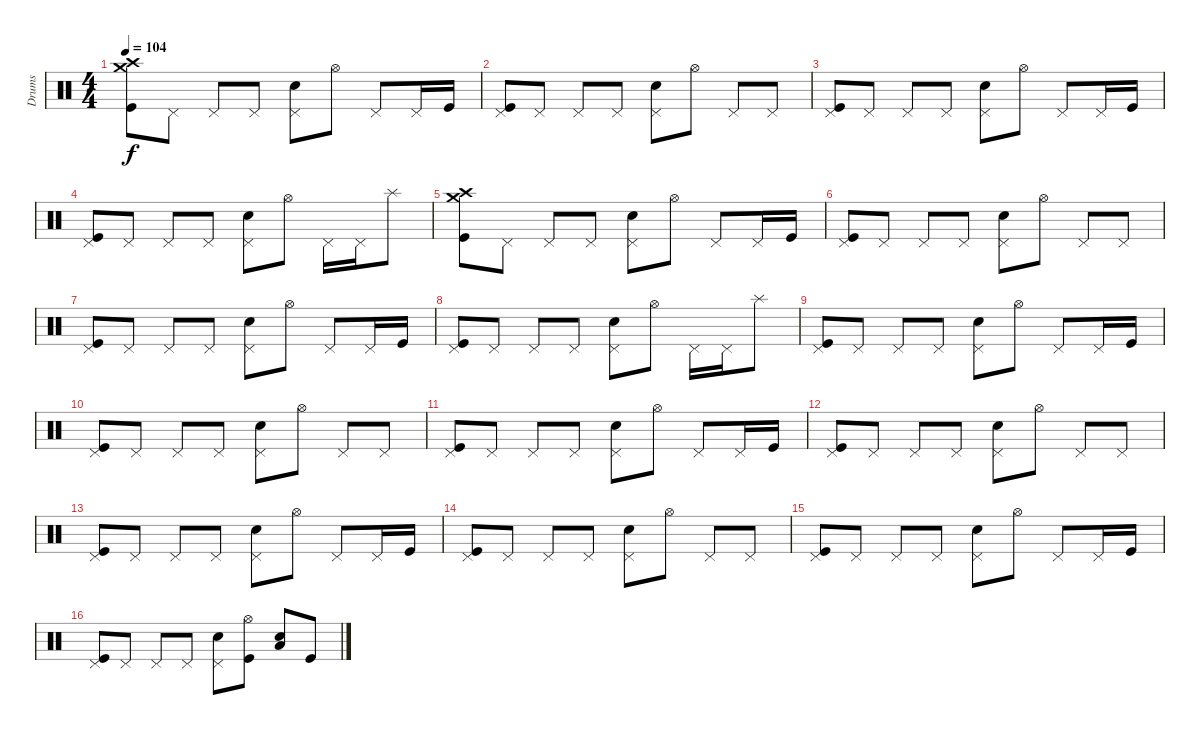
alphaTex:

\track ("Drums" "Drums") {instrument percussion}
\staff {score}
\articulation defaults
\ts (4 4)
\tempo 104
\clef neutral
\ks c
("Crash high (hit)" "Crash medium (hit)" "Kick (hit)").8{dy f} "Pedal Hi-Hat (hit)".8 "Pedal Hi-Hat (hit)".8 "Pedal Hi-Hat (hit)".8 ("Pedal Hi-Hat (hit)" "Electric Snare (hit)").8 "Hi-Hat (open)".8 "Pedal Hi-Hat (hit)".8 "Pedal Hi-Hat (hit)".16 "Kick (hit)".16 |
("Pedal Hi-Hat (hit)" "Kick (hit)").8 "Pedal Hi-Hat (hit)".8 "Pedal Hi-Hat (hit)".8 "Pedal Hi-Hat (hit)".8 ("Pedal Hi-Hat (hit)" "Snare (hit) 2").8 "Hi-Hat (open)".8 "Pedal Hi-Hat (hit)".8 "Pedal Hi-Hat (hit)".8 |
("Pedal Hi-Hat (hit)" "Kick (hit)").8 "Pedal Hi-Hat (hit)".8 "Pedal Hi-Hat (hit)".8 "Pedal Hi-Hat (hit)".8 ("Pedal Hi-Hat (hit)" "Snare (hit) 2").8 "Hi-Hat (open)".8 "Pedal Hi-Hat (hit)".8 "Pedal Hi-Hat (hit)".16 "Kick (hit)".16 |
("Pedal Hi-Hat (hit)" "Kick (hit)").8 "Pedal Hi-Hat (hit)".8 "Pedal Hi-Hat (hit)".8 "Pedal Hi-Hat (hit)".8 ("Pedal Hi-Hat (hit)" "Snare (hit) 2").8 "Hi-Hat (open)".8 "Pedal Hi-Hat (hit)".16 "Pedal Hi-Hat (hit)".16 "Splash (hit)".8 |
("Crash high (hit)" "Crash medium (hit)" "Kick (hit)").8 "Pedal Hi-Hat (hit)".8 "Pedal Hi-Hat (hit)".8 "Pedal Hi-Hat (hit)".8 ("Pedal Hi-Hat (hit)" "Electric Snare (hit)").8 "Hi-Hat (open)".8 "Pedal Hi-Hat (hit)".8 "Pedal Hi-Hat (hit)".16 "Kick (hit)".16 |
("Pedal Hi-Hat (hit)" "Kick (hit)").8 "Pedal Hi-Hat (hit)".8 "Pedal Hi-Hat (hit)".8 "Pedal Hi-Hat (hit)".8 ("Pedal Hi-Hat (hit)" "Snare (hit) 2").8 "Hi-Hat (open)".8 "Pedal Hi-Hat (hit)".8 "Pedal Hi-Hat (hit)".8 |
("Pedal Hi-Hat (hit)" "Kick (hit)").8 "Pedal Hi-Hat (hit)".8 "Pedal Hi-Hat (hit)".8 "Pedal Hi-Hat (hit)".8 ("Pedal Hi-Hat (hit)" "Snare (hit) 2").8 "Hi-Hat (open)".8 "Pedal Hi-Hat (hit)".8 "Pedal Hi-Hat (hit)".16 "Kick (hit)".16 |
("Pedal Hi-Hat (hit)" "Kick (hit)").8 "Pedal Hi-Hat (hit)".8 "Pedal Hi-Hat (hit)".8 "Pedal Hi-Hat (hit)".8 ("Pedal Hi-Hat (hit)" "Snare (hit) 2").8 "Hi-Hat (open)".8 "Pedal Hi-Hat (hit)".16 "Pedal Hi-Hat (hit)".16 "Splash (hit)".8 |
("Pedal Hi-Hat (hit)" "Kick (hit)").8 "Pedal Hi-Hat (hit)".8 "Pedal Hi-Hat (hit)".8 "Pedal Hi-Hat (hit)".8 ("Pedal Hi-Hat (hit)" "Electric Snare (hit)").8 "Hi-Hat (open)".8 "Pedal Hi-Hat (hit)".8 "Pedal Hi-Hat (hit)".16 "Kick (hit)".16 |
("Pedal Hi-Hat (hit)" "Kick (hit)").8 "Pedal Hi-Hat (hit)".8 "Pedal Hi-Hat (hit)".8 "Pedal Hi-Hat (hit)".8 ("Pedal Hi-Hat (hit)" "Snare (hit) 2").8 "Hi-Hat (open)".8 "Pedal Hi-Hat (hit)".8 "Pedal Hi-Hat (hit)".8 |
("Pedal Hi-Hat (hit)" "Kick (hit)").8 "Pedal Hi-Hat (hit)".8 "Pedal Hi-Hat (hit)".8 "Pedal Hi-Hat (hit)".8 ("Pedal Hi-Hat (hit)" "Snare (hit) 2").8 "Hi-Hat (open)".8 "Pedal Hi-Hat (hit)".8 "Pedal Hi-Hat (hit)".16 "Kick (hit)".16 |
("Pedal Hi-Hat (hit)" "Kick (hit)").8 "Pedal Hi-Hat (hit)".8 "Pedal Hi-Hat (hit)".8 "Pedal Hi-Hat (hit)".8 ("Pedal Hi-Hat (hit)" "Snare (hit) 2").8 "Hi-Hat (open)".8 "Pedal Hi-Hat (hit)".8 "Pedal Hi-Hat (hit)".8 |
("Pedal Hi-Hat (hit)" "Kick (hit)").8 "Pedal Hi-Hat (hit)".8 "Pedal Hi-Hat (hit)".8 "Pedal Hi-Hat (hit)".8 ("Pedal Hi-Hat (hit)" "Electric Snare (hit)").8 "Hi-Hat (open)".8 "Pedal Hi-Hat (hit)".8 "Pedal Hi-Hat (hit)".16 "Kick (hit)".16 |
("Pedal Hi-Hat (hit)" "Kick (hit)").8 "Pedal Hi-Hat (hit)".8 "Pedal Hi-Hat (hit)".8 "Pedal Hi-Hat (hit)".8 ("Pedal Hi-Hat (hit)" "Snare (hit) 2").8 "Hi-Hat (open)".8 "Pedal Hi-Hat (hit)".8 "Pedal Hi-Hat (hit)".8 |
("Pedal Hi-Hat (hit)" "Kick (hit)").8 "Pedal Hi-Hat (hit)".8 "Pedal Hi-Hat (hit)".8 "Pedal Hi-Hat (hit)".8 ("Pedal Hi-Hat (hit)" "Snare (hit) 2").8 "Hi-Hat (open)".8 "Pedal Hi-Hat (hit)".8 "Pedal Hi-Hat (hit)".16 "Kick (hit)".16 |
("Pedal Hi-Hat (hit)" "Kick (hit)").8 "Pedal Hi-Hat (hit)".8 "Pedal Hi-Hat (hit)".8 "Pedal Hi-Hat (hit)".8 ("Pedal Hi-Hat (hit)" "Snare (hit) 2").8 ("Hi-Hat (open)" "Kick (hit)").8 ("Low Floor Tom (hit)" "Electric Snare (hit)").8 "Kick (hit)".8
